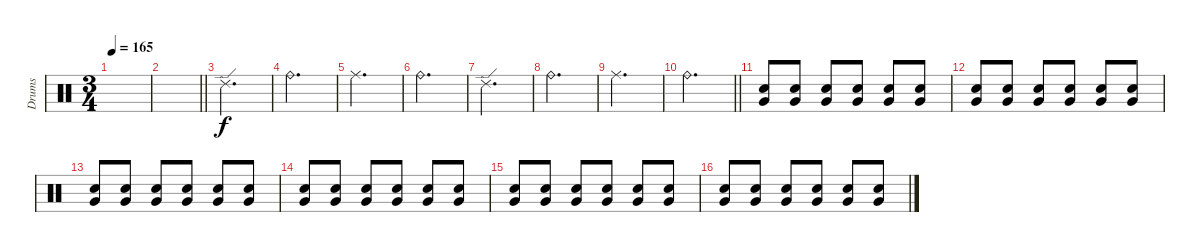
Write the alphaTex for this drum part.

\track ("Drums" "Drums") {instrument percussion}
\staff {score}
\articulation defaults
\ts (3 4)
\tempo 165
\clef neutral
\ks c
|
\barLineRight lightlight
|
\section ("" "")
"Ride (edge) 2".2{d} |
"Ride (bell)".2{d} |
"Ride (middle)".2{d} |
"Ride (bell)".2{d} |
"Ride (edge) 2".2{d} |
"Ride (bell)".2{d} |
"Ride (middle)".2{d} |
\barLineRight lightlight "Ride (bell)".2{d}
|
\section ("" "")
("Electric Snare (hit)" "Very Low Tom (hit)").8{volume 4} ("Electric Snare (hit)" "Very Low Tom (hit)").8 ("Electric Snare (hit)" "Very Low Tom (hit)").8 ("Electric Snare (hit)" "Very Low Tom (hit)").8{volume 5} ("Electric Snare (hit)" "Very Low Tom (hit)").8 ("Electric Snare (hit)" "Very Low Tom (hit)").8 |
("Electric Snare (hit)" "Very Low Tom (hit)").8{volume 6} ("Electric Snare (hit)" "Very Low Tom (hit)").8 ("Electric Snare (hit)" "Very Low Tom (hit)").8 ("Electric Snare (hit)" "Very Low Tom (hit)").8{volume 7} ("Electric Snare (hit)" "Very Low Tom (hit)").8 ("Electric Snare (hit)" "Very Low Tom (hit)").8 |
("Electric Snare (hit)" "Very Low Tom (hit)").8{volume 8} ("Electric Snare (hit)" "Very Low Tom (hit)").8 ("Electric Snare (hit)" "Very Low Tom (hit)").8 ("Electric Snare (hit)" "Very Low Tom (hit)").8{volume 9} ("Electric Snare (hit)" "Very Low Tom (hit)").8 ("Electric Snare (hit)" "Very Low Tom (hit)").8 |
("Electric Snare (hit)" "Very Low Tom (hit)").8{volume 10} ("Electric Snare (hit)" "Very Low Tom (hit)").8 ("Electric Snare (hit)" "Very Low Tom (hit)").8 ("Electric Snare (hit)" "Very Low Tom (hit)").8{volume 11} ("Electric Snare (hit)" "Very Low Tom (hit)").8 ("Electric Snare (hit)" "Very Low Tom (hit)").8 |
("Electric Snare (hit)" "Very Low Tom (hit)").8{volume 12} ("Electric Snare (hit)" "Very Low Tom (hit)").8 ("Electric Snare (hit)" "Very Low Tom (hit)").8 ("Electric Snare (hit)" "Very Low Tom (hit)").8{volume 13} ("Electric Snare (hit)" "Very Low Tom (hit)").8 ("Electric Snare (hit)" "Very Low Tom (hit)").8 |
("Electric Snare (hit)" "Very Low Tom (hit)").8{volume 14} ("Electric Snare (hit)" "Very Low Tom (hit)").8 ("Electric Snare (hit)" "Very Low Tom (hit)").8 ("Electric Snare (hit)" "Very Low Tom (hit)").8 ("Electric Snare (hit)" "Very Low Tom (hit)").8 ("Electric Snare (hit)" "Very Low Tom (hit)").8
